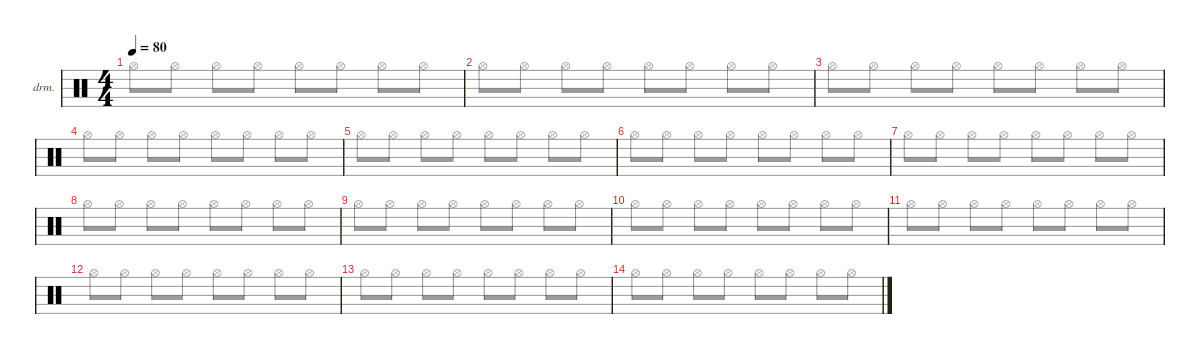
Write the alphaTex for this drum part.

\defaultSystemsLayout 4
\hideDynamics
\bracketExtendMode nobrackets
\firstSystemTrackNameOrientation horizontal
\otherSystemsTrackNameOrientation horizontal
\track ("Drumkit" "drm.") {instrument percussion}
\staff {score}
\articulation defaults
\voice
\ts (4 4)
\tempo 80
\clef neutral
\ks c
|
|
|
|
|
|
|
|
|
|
|
|
|
|
|
\voice
\clef neutral
\ks c "Hi-Hat (open)".8{dy mf} "Hi-Hat (open)".8 "Hi-Hat (open)".8 "Hi-Hat (open)".8 "Hi-Hat (open)".8 "Hi-Hat (open)".8 "Hi-Hat (open)".8 "Hi-Hat (open)".8
|
"Hi-Hat (open)".8 "Hi-Hat (open)".8 "Hi-Hat (open)".8 "Hi-Hat (open)".8 "Hi-Hat (open)".8 "Hi-Hat (open)".8 "Hi-Hat (open)".8 "Hi-Hat (open)".8 |
"Hi-Hat (open)".8 "Hi-Hat (open)".8 "Hi-Hat (open)".8 "Hi-Hat (open)".8 "Hi-Hat (open)".8 "Hi-Hat (open)".8 "Hi-Hat (open)".8 "Hi-Hat (open)".8 |
"Hi-Hat (open)".8 "Hi-Hat (open)".8 "Hi-Hat (open)".8 "Hi-Hat (open)".8 "Hi-Hat (open)".8 "Hi-Hat (open)".8 "Hi-Hat (open)".8 "Hi-Hat (open)".8 |
"Hi-Hat (open)".8 "Hi-Hat (open)".8 "Hi-Hat (open)".8 "Hi-Hat (open)".8 "Hi-Hat (open)".8 "Hi-Hat (open)".8 "Hi-Hat (open)".8 "Hi-Hat (open)".8 |
"Hi-Hat (open)".8 "Hi-Hat (open)".8 "Hi-Hat (open)".8 "Hi-Hat (open)".8 "Hi-Hat (open)".8 "Hi-Hat (open)".8 "Hi-Hat (open)".8 "Hi-Hat (open)".8 |
"Hi-Hat (open)".8 "Hi-Hat (open)".8 "Hi-Hat (open)".8 "Hi-Hat (open)".8 "Hi-Hat (open)".8 "Hi-Hat (open)".8 "Hi-Hat (open)".8 "Hi-Hat (open)".8 |
"Hi-Hat (open)".8 "Hi-Hat (open)".8 "Hi-Hat (open)".8 "Hi-Hat (open)".8 "Hi-Hat (open)".8 "Hi-Hat (open)".8 "Hi-Hat (open)".8 "Hi-Hat (open)".8 |
"Hi-Hat (open)".8 "Hi-Hat (open)".8 "Hi-Hat (open)".8 "Hi-Hat (open)".8 "Hi-Hat (open)".8 "Hi-Hat (open)".8 "Hi-Hat (open)".8 "Hi-Hat (open)".8 |
"Hi-Hat (open)".8 "Hi-Hat (open)".8 "Hi-Hat (open)".8 "Hi-Hat (open)".8 "Hi-Hat (open)".8 "Hi-Hat (open)".8 "Hi-Hat (open)".8 "Hi-Hat (open)".8 |
"Hi-Hat (open)".8 "Hi-Hat (open)".8 "Hi-Hat (open)".8 "Hi-Hat (open)".8 "Hi-Hat (open)".8 "Hi-Hat (open)".8 "Hi-Hat (open)".8 "Hi-Hat (open)".8 |
"Hi-Hat (open)".8 "Hi-Hat (open)".8 "Hi-Hat (open)".8 "Hi-Hat (open)".8 "Hi-Hat (open)".8 "Hi-Hat (open)".8 "Hi-Hat (open)".8 "Hi-Hat (open)".8 |
"Hi-Hat (open)".8 "Hi-Hat (open)".8 "Hi-Hat (open)".8 "Hi-Hat (open)".8 "Hi-Hat (open)".8 "Hi-Hat (open)".8 "Hi-Hat (open)".8 "Hi-Hat (open)".8 |
"Hi-Hat (open)".8 "Hi-Hat (open)".8 "Hi-Hat (open)".8 "Hi-Hat (open)".8 "Hi-Hat (open)".8 "Hi-Hat (open)".8 "Hi-Hat (open)".8 "Hi-Hat (open)".8 |
|
